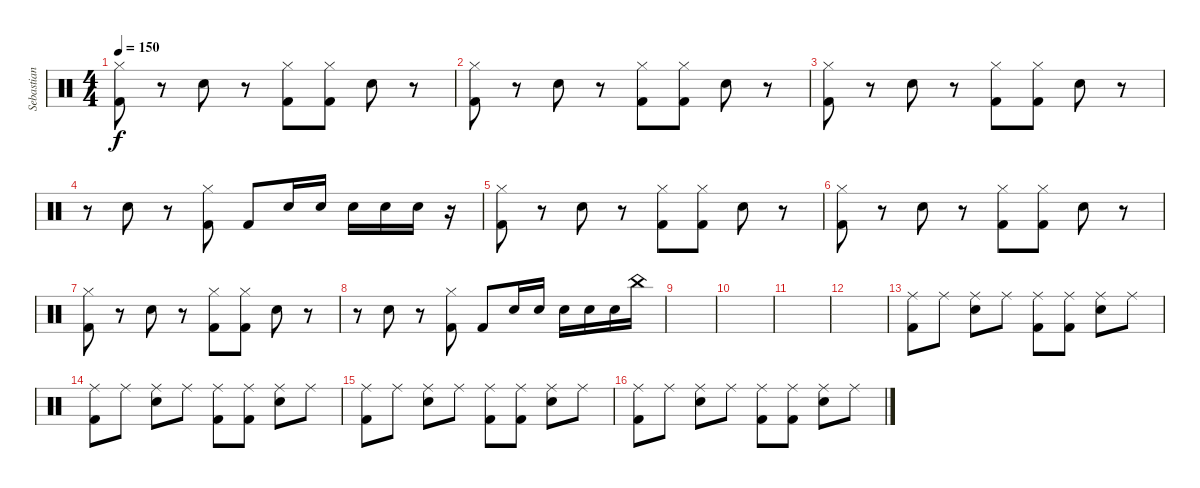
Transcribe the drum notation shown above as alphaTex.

\track ("Sebastian" "Sebastian") {instrument percussion}
\staff {score}
\articulation defaults
\ts (4 4)
\tempo 150
\clef neutral
\ks c
("Kick (hit) 2" "Hi-Hat (closed)").8{dy f} r.8 "Electric Snare (hit)".8 r.8 ("Kick (hit) 2" "Hi-Hat (closed)").8 ("Kick (hit) 2" "Hi-Hat (closed)").8 "Electric Snare (hit)".8 r.8 |
("Kick (hit) 2" "Hi-Hat (closed)").8 r.8 "Electric Snare (hit)".8 r.8 ("Kick (hit) 2" "Hi-Hat (closed)").8 ("Kick (hit) 2" "Hi-Hat (closed)").8 "Electric Snare (hit)".8 r.8 |
("Kick (hit) 2" "Hi-Hat (closed)").8 r.8 "Electric Snare (hit)".8 r.8 ("Kick (hit) 2" "Hi-Hat (closed)").8 ("Kick (hit) 2" "Hi-Hat (closed)").8 "Electric Snare (hit)".8 r.8 |
r.8 "Electric Snare (hit)".8 r.8 ("Kick (hit) 2" "Hi-Hat (closed)").8 "Kick (hit) 2".8 "Electric Snare (hit)".16 "Electric Snare (hit)".16 "Electric Snare (hit)".16 "Electric Snare (hit)".16 "Electric Snare (hit)".16 r.16 |
("Kick (hit) 2" "Hi-Hat (closed)").8 r.8 "Electric Snare (hit)".8 r.8 ("Kick (hit) 2" "Hi-Hat (closed)").8 ("Kick (hit) 2" "Hi-Hat (closed)").8 "Electric Snare (hit)".8 r.8 |
("Kick (hit) 2" "Hi-Hat (closed)").8 r.8 "Electric Snare (hit)".8 r.8 ("Kick (hit) 2" "Hi-Hat (closed)").8 ("Kick (hit) 2" "Hi-Hat (closed)").8 "Electric Snare (hit)".8 r.8 |
("Kick (hit) 2" "Hi-Hat (closed)").8 r.8 "Electric Snare (hit)".8 r.8 ("Kick (hit) 2" "Hi-Hat (closed)").8 ("Kick (hit) 2" "Hi-Hat (closed)").8 "Electric Snare (hit)".8 r.8 |
r.8 "Electric Snare (hit)".8 r.8 ("Kick (hit) 2" "Hi-Hat (closed)").8 "Kick (hit) 2".8 "Electric Snare (hit)".16 "Electric Snare (hit)".16 "Electric Snare (hit)".16 "Electric Snare (hit)".16 "Electric Snare (hit)".16 "China (hit)".16 |
|
|
|
|
("Kick (hit) 2" "Ride (middle)").8 "Ride (middle)".8 ("Electric Snare (hit)" "Ride (middle)").8 "Ride (middle)".8 ("Kick (hit) 2" "Ride (middle)").8 ("Kick (hit) 2" "Ride (middle)").8 ("Electric Snare (hit)" "Ride (middle)").8 "Ride (middle)".8 |
("Kick (hit) 2" "Ride (middle)").8 "Ride (middle)".8 ("Electric Snare (hit)" "Ride (middle)").8 "Ride (middle)".8 ("Kick (hit) 2" "Ride (middle)").8 ("Kick (hit) 2" "Ride (middle)").8 ("Electric Snare (hit)" "Ride (middle)").8 "Ride (middle)".8 |
("Kick (hit) 2" "Ride (middle)").8 "Ride (middle)".8 ("Electric Snare (hit)" "Ride (middle)").8 "Ride (middle)".8 ("Kick (hit) 2" "Ride (middle)").8 ("Kick (hit) 2" "Ride (middle)").8 ("Electric Snare (hit)" "Ride (middle)").8 "Ride (middle)".8 |
("Kick (hit) 2" "Ride (middle)").8 "Ride (middle)".8 ("Electric Snare (hit)" "Ride (middle)").8 "Ride (middle)".8 ("Kick (hit) 2" "Ride (middle)").8 ("Kick (hit) 2" "Ride (middle)").8 ("Electric Snare (hit)" "Ride (middle)").8 "Ride (middle)".8
